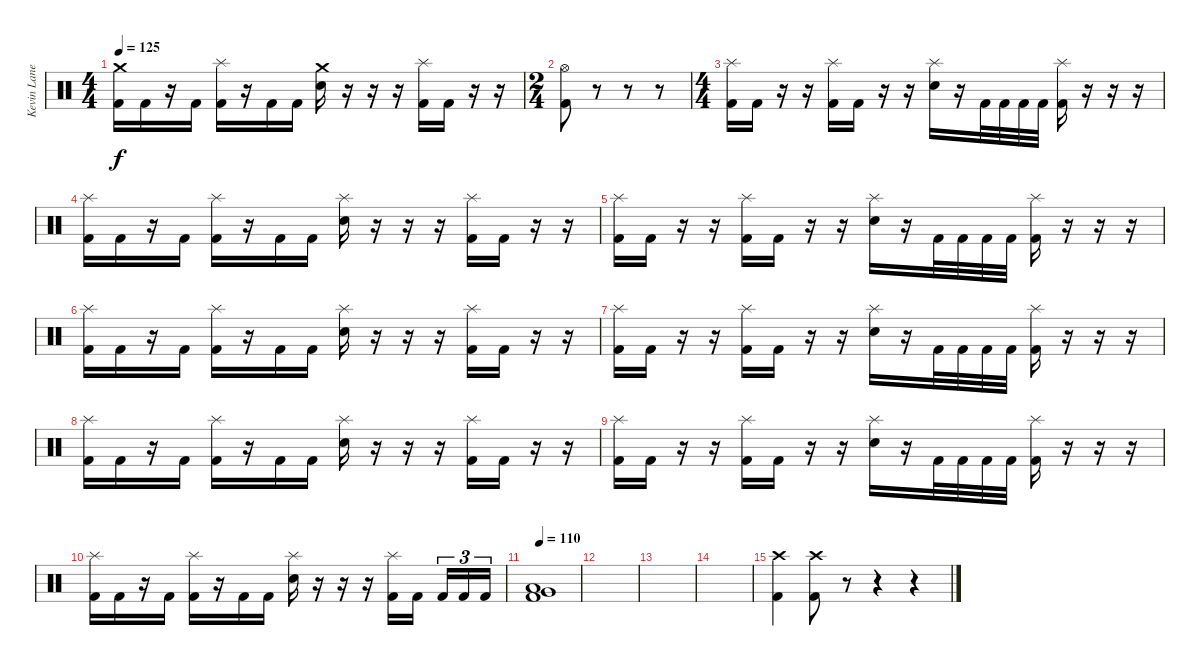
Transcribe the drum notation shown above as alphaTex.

\track ("Kevin Lane" "Kevin Lane") {instrument percussion}
\staff {score}
\articulation defaults
\ts (4 4)
\tempo 125
\clef neutral
\ks c
("Crash medium (hit)" "Kick (hit) 2").16{dy f} "Kick (hit) 2".16 r.16 "Kick (hit) 2".16 ("Splash (hit)" "Kick (hit) 2").16 r.16 "Kick (hit) 2".16 "Kick (hit) 2".16 ("Crash medium (hit)" "Electric Snare (hit)").16 r.16 r.16 r.16 ("Splash (hit)" "Kick (hit) 2").16 "Kick (hit) 2".16 r.16 r.16 |
\ts (2 4)
("Hi-Hat (open)" "Kick (hit) 2").8 r.8 r.8 r.8 |
\ts (4 4)
("Splash (hit)" "Kick (hit) 2").16 "Kick (hit) 2".16 r.16 r.16 ("Splash (hit)" "Kick (hit) 2").16 "Kick (hit) 2".16 r.16 r.16 ("Splash (hit)" "Electric Snare (hit)").16 r.16 "Kick (hit) 2".32 "Kick (hit) 2".32 "Kick (hit) 2".32 "Kick (hit) 2".32 ("Splash (hit)" "Kick (hit) 2").16 r.16 r.16 r.16 |
("Splash (hit)" "Kick (hit) 2").16 "Kick (hit) 2".16 r.16 "Kick (hit) 2".16 ("Splash (hit)" "Kick (hit) 2").16 r.16 "Kick (hit) 2".16 "Kick (hit) 2".16 ("Splash (hit)" "Electric Snare (hit)").16 r.16 r.16 r.16 ("Splash (hit)" "Kick (hit) 2").16 "Kick (hit) 2".16 r.16 r.16 |
("Splash (hit)" "Kick (hit) 2").16 "Kick (hit) 2".16 r.16 r.16 ("Splash (hit)" "Kick (hit) 2").16 "Kick (hit) 2".16 r.16 r.16 ("Splash (hit)" "Electric Snare (hit)").16 r.16 "Kick (hit) 2".32 "Kick (hit) 2".32 "Kick (hit) 2".32 "Kick (hit) 2".32 ("Splash (hit)" "Kick (hit) 2").16 r.16 r.16 r.16 |
("Splash (hit)" "Kick (hit) 2").16 "Kick (hit) 2".16 r.16 "Kick (hit) 2".16 ("Splash (hit)" "Kick (hit) 2").16 r.16 "Kick (hit) 2".16 "Kick (hit) 2".16 ("Splash (hit)" "Electric Snare (hit)").16 r.16 r.16 r.16 ("Splash (hit)" "Kick (hit) 2").16 "Kick (hit) 2".16 r.16 r.16 |
("Splash (hit)" "Kick (hit) 2").16 "Kick (hit) 2".16 r.16 r.16 ("Splash (hit)" "Kick (hit) 2").16 "Kick (hit) 2".16 r.16 r.16 ("Splash (hit)" "Electric Snare (hit)").16 r.16 "Kick (hit) 2".32 "Kick (hit) 2".32 "Kick (hit) 2".32 "Kick (hit) 2".32 ("Splash (hit)" "Kick (hit) 2").16 r.16 r.16 r.16 |
("Splash (hit)" "Kick (hit) 2").16 "Kick (hit) 2".16 r.16 "Kick (hit) 2".16 ("Splash (hit)" "Kick (hit) 2").16 r.16 "Kick (hit) 2".16 "Kick (hit) 2".16 ("Splash (hit)" "Electric Snare (hit)").16 r.16 r.16 r.16 ("Splash (hit)" "Kick (hit) 2").16 "Kick (hit) 2".16 r.16 r.16 |
("Splash (hit)" "Kick (hit) 2").16 "Kick (hit) 2".16 r.16 r.16 ("Splash (hit)" "Kick (hit) 2").16 "Kick (hit) 2".16 r.16 r.16 ("Splash (hit)" "Electric Snare (hit)").16 r.16 "Kick (hit) 2".32 "Kick (hit) 2".32 "Kick (hit) 2".32 "Kick (hit) 2".32 ("Splash (hit)" "Kick (hit) 2").16 r.16 r.16 r.16 |
("Splash (hit)" "Kick (hit) 2").16 "Kick (hit) 2".16 r.16 "Kick (hit) 2".16 ("Splash (hit)" "Kick (hit) 2").16 r.16 "Kick (hit) 2".16 "Kick (hit) 2".16 ("Splash (hit)" "Electric Snare (hit)").16 r.16 r.16 r.16 ("Splash (hit)" "Kick (hit) 2").16 "Kick (hit) 2".16{beam splitsecondary} "Kick (hit) 2".16{tu (3 2)} "Kick (hit) 2".16{tu (3 2)} "Kick (hit) 2".16{tu (3 2)} |
\tempo 110
("Low Floor Tom (hit)" "Very Low Tom (hit)" "Kick (hit) 2").1 |
|
|
|
("Crash high (hit)" "Kick (hit) 2").4 ("Crash high (hit)" "Kick (hit) 2").8 r.8 r.4{volume 0} r.4
